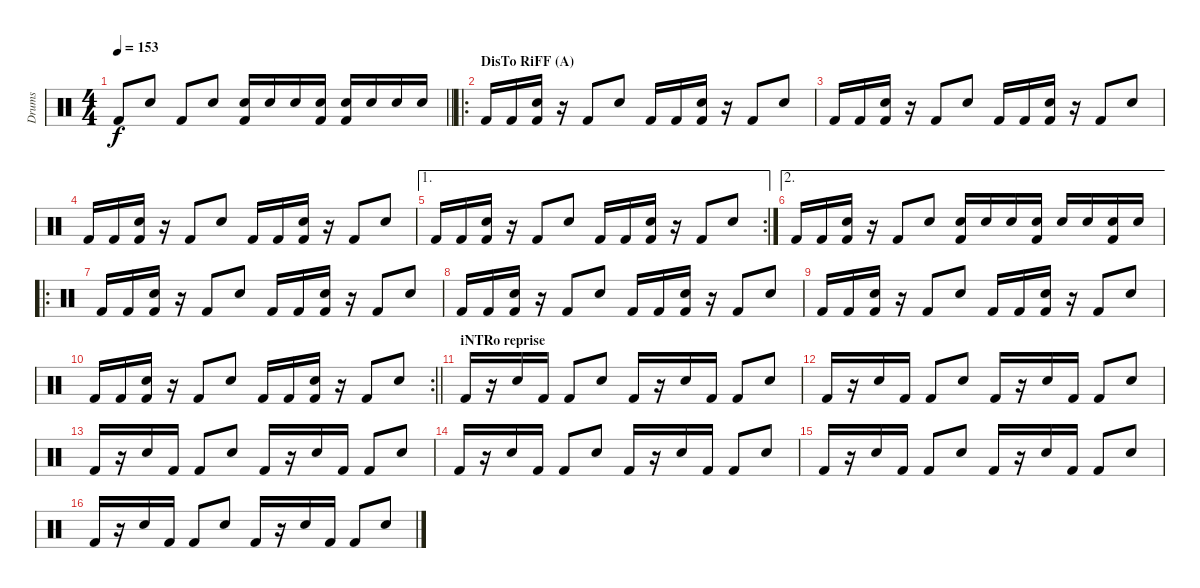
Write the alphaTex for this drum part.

\track ("Drums" "Drums") {instrument percussion}
\staff {score}
\articulation defaults
\ts (4 4)
\tempo 153
\clef neutral
\barLineRight lightlight
\ks c "Kick (hit) 2".8{dy f} "Electric Snare (hit)".8 "Kick (hit) 2".8 "Electric Snare (hit)".8
("Metronome (bell)" "Kick (hit) 2").16 "Metronome (bell)".16 "Metronome (bell)".16 ("Metronome (bell)" "Kick (hit) 2").16 ("Metronome (bell)" "Kick (hit) 2").16 "Metronome (bell)".16 "Metronome (bell)".16 "Metronome (bell)".16 |
\ro
\section ("" "DisTo RiFF (A)")
"Kick (hit) 2".16 "Kick (hit) 2".16 ("Electric Snare (hit)" "Kick (hit) 2").16 r.16 "Kick (hit) 2".8 "Electric Snare (hit)".8 "Kick (hit) 2".16 "Kick (hit) 2".16 ("Electric Snare (hit)" "Kick (hit) 2").16 r.16 "Kick (hit) 2".8 "Electric Snare (hit)".8 |
"Kick (hit) 2".16 "Kick (hit) 2".16 ("Electric Snare (hit)" "Kick (hit) 2").16 r.16 "Kick (hit) 2".8 "Electric Snare (hit)".8 "Kick (hit) 2".16 "Kick (hit) 2".16 ("Electric Snare (hit)" "Kick (hit) 2").16 r.16 "Kick (hit) 2".8 "Electric Snare (hit)".8 |
"Kick (hit) 2".16 "Kick (hit) 2".16 ("Electric Snare (hit)" "Kick (hit) 2").16 r.16 "Kick (hit) 2".8 "Electric Snare (hit)".8 "Kick (hit) 2".16 "Kick (hit) 2".16 ("Electric Snare (hit)" "Kick (hit) 2").16 r.16 "Kick (hit) 2".8 "Electric Snare (hit)".8 |
\ae 1
\rc 2 "Kick (hit) 2".16 "Kick (hit) 2".16
("Electric Snare (hit)" "Kick (hit) 2").16 r.16 "Kick (hit) 2".8 "Electric Snare (hit)".8 "Kick (hit) 2".16 "Kick (hit) 2".16 ("Electric Snare (hit)" "Kick (hit) 2").16 r.16 "Kick (hit) 2".8 "Electric Snare (hit)".8 |
\ae 2 "Kick (hit) 2".16 "Kick (hit) 2".16
("Electric Snare (hit)" "Kick (hit) 2").16 r.16 "Kick (hit) 2".8 "Electric Snare (hit)".8 ("Metronome (bell)" "Kick (hit) 2").16 "Metronome (bell)".16 "Metronome (bell)".16 ("Metronome (bell)" "Kick (hit) 2").16 "Metronome (bell)".16 "Metronome (bell)".16 ("Metronome (bell)" "Kick (hit) 2").16 "Metronome (bell)".16 |
\ro "Kick (hit) 2".16 "Kick (hit) 2".16
("Electric Snare (hit)" "Kick (hit) 2").16 r.16 "Kick (hit) 2".8 "Electric Snare (hit)".8 "Kick (hit) 2".16 "Kick (hit) 2".16 ("Electric Snare (hit)" "Kick (hit) 2").16 r.16 "Kick (hit) 2".8 "Electric Snare (hit)".8 |
"Kick (hit) 2".16 "Kick (hit) 2".16 ("Electric Snare (hit)" "Kick (hit) 2").16 r.16 "Kick (hit) 2".8 "Electric Snare (hit)".8 "Kick (hit) 2".16 "Kick (hit) 2".16 ("Electric Snare (hit)" "Kick (hit) 2").16 r.16 "Kick (hit) 2".8 "Electric Snare (hit)".8 |
"Kick (hit) 2".16 "Kick (hit) 2".16 ("Electric Snare (hit)" "Kick (hit) 2").16 r.16 "Kick (hit) 2".8 "Electric Snare (hit)".8 "Kick (hit) 2".16 "Kick (hit) 2".16 ("Electric Snare (hit)" "Kick (hit) 2").16 r.16 "Kick (hit) 2".8 "Electric Snare (hit)".8 |
\rc 2
\barLineRight lightlight "Kick (hit) 2".16 "Kick (hit) 2".16
("Electric Snare (hit)" "Kick (hit) 2").16 r.16 "Kick (hit) 2".8 "Electric Snare (hit)".8 "Kick (hit) 2".16 "Kick (hit) 2".16 ("Electric Snare (hit)" "Kick (hit) 2").16 r.16 "Kick (hit) 2".8 "Electric Snare (hit)".8 |
\section ("" "iNTRo reprise")
"Kick (hit) 2".16 r.16 "Electric Snare (hit)".16 "Kick (hit) 2".16 "Kick (hit) 2".8 "Electric Snare (hit)".8 "Kick (hit) 2".16 r.16 "Electric Snare (hit)".16 "Kick (hit) 2".16 "Kick (hit) 2".8 "Electric Snare (hit)".8 |
"Kick (hit) 2".16 r.16 "Electric Snare (hit)".16 "Kick (hit) 2".16 "Kick (hit) 2".8 "Electric Snare (hit)".8 "Kick (hit) 2".16 r.16 "Electric Snare (hit)".16 "Kick (hit) 2".16 "Kick (hit) 2".8 "Electric Snare (hit)".8 |
"Kick (hit) 2".16 r.16 "Electric Snare (hit)".16 "Kick (hit) 2".16 "Kick (hit) 2".8 "Electric Snare (hit)".8 "Kick (hit) 2".16 r.16 "Electric Snare (hit)".16 "Kick (hit) 2".16 "Kick (hit) 2".8 "Electric Snare (hit)".8 |
"Kick (hit) 2".16 r.16 "Electric Snare (hit)".16 "Kick (hit) 2".16 "Kick (hit) 2".8 "Electric Snare (hit)".8 "Kick (hit) 2".16 r.16 "Electric Snare (hit)".16 "Kick (hit) 2".16 "Kick (hit) 2".8 "Electric Snare (hit)".8 |
"Kick (hit) 2".16 r.16 "Electric Snare (hit)".16 "Kick (hit) 2".16 "Kick (hit) 2".8 "Electric Snare (hit)".8 "Kick (hit) 2".16 r.16 "Electric Snare (hit)".16 "Kick (hit) 2".16 "Kick (hit) 2".8 "Electric Snare (hit)".8 |
"Kick (hit) 2".16 r.16 "Electric Snare (hit)".16 "Kick (hit) 2".16 "Kick (hit) 2".8 "Electric Snare (hit)".8 "Kick (hit) 2".16 r.16 "Electric Snare (hit)".16 "Kick (hit) 2".16 "Kick (hit) 2".8 "Electric Snare (hit)".8
